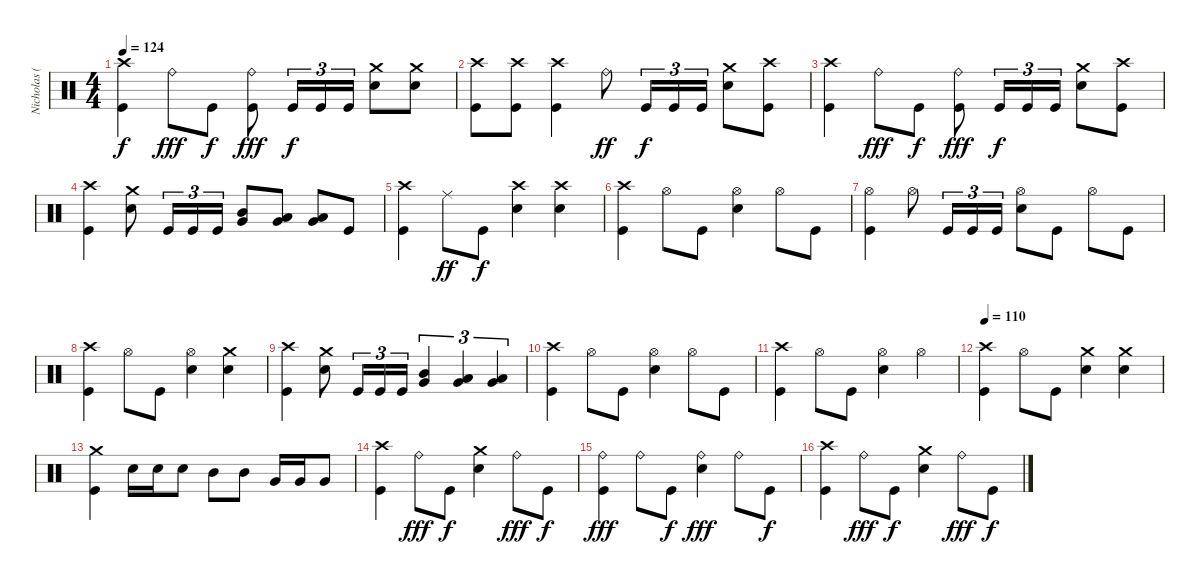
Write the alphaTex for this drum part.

\track ("Nicholas (Drums)" "Nicholas (") {instrument percussion}
\staff {score}
\articulation defaults
\ts (4 4)
\tempo 124
\clef neutral
\ks c
("Crash high (hit)" "Kick (hit)").4{dy f} "Ride (bell)".8{dy fff} "Kick (hit)".8{dy f} ("Ride (bell)" "Kick (hit)").8{dy fff} "Kick (hit)".16{tu (3 2) dy f} "Kick (hit)".16{tu (3 2)} "Kick (hit)".16{tu (3 2)} ("Crash medium (hit)" "Electric Snare (hit)").8 ("Crash medium (hit)" "Electric Snare (hit)").8 |
("Crash high (hit)" "Kick (hit)").8 ("Crash high (hit)" "Kick (hit)").8 ("Crash high (hit)" "Kick (hit)").4 "Ride (bell)".8{dy ff} "Kick (hit)".16{tu (3 2) dy f} "Kick (hit)".16{tu (3 2)} "Kick (hit)".16{tu (3 2)} ("Crash medium (hit)" "Electric Snare (hit)").8 ("Crash high (hit)" "Kick (hit)").8 |
("Crash high (hit)" "Kick (hit)").4 "Ride (bell)".8{dy fff} "Kick (hit)".8{dy f} ("Ride (bell)" "Kick (hit)").8{dy fff} "Kick (hit)".16{tu (3 2) dy f} "Kick (hit)".16{tu (3 2)} "Kick (hit)".16{tu (3 2)} ("Crash medium (hit)" "Electric Snare (hit)").8 ("Crash high (hit)" "Kick (hit)").8 |
("Crash high (hit)" "Kick (hit)").4 ("Crash medium (hit)" "Electric Snare (hit)").8 "Kick (hit)".16{tu (3 2)} "Kick (hit)".16{tu (3 2)} "Kick (hit)".16{tu (3 2)} ("Mid Tom (hit)" "Very Low Tom (hit)").8{bu 60} ("Low Tom (hit)" "Very Low Tom (hit)").8{bu 60} ("Low Tom (hit)" "Very Low Tom (hit)").8{bu 60} "Kick (hit)".8 |
("Crash high (hit)" "Kick (hit)").4 "Ride (middle)".8{dy ff} "Kick (hit)".8{dy f} ("Crash high (hit)" "Electric Snare (hit)").4 ("Crash high (hit)" "Electric Snare (hit)").4 |
("Crash high (hit)" "Kick (hit)").4 "Hi-Hat (open)".8 "Kick (hit)".8 ("Hi-Hat (open)" "Electric Snare (hit)").4 "Hi-Hat (open)".8 "Kick (hit)".8 |
("Hi-Hat (open)" "Kick (hit)").4 "Hi-Hat (open)".8 "Kick (hit)".16{tu (3 2)} "Kick (hit)".16{tu (3 2)} "Kick (hit)".16{tu (3 2)} ("Hi-Hat (open)" "Electric Snare (hit)").8 "Kick (hit)".8 "Hi-Hat (open)".8 "Kick (hit)".8 |
("Crash high (hit)" "Kick (hit)").4 "Hi-Hat (open)".8 "Kick (hit)".8 ("Hi-Hat (open)" "Electric Snare (hit)").4 ("Crash medium (hit)" "Electric Snare (hit)").4 |
("Crash high (hit)" "Kick (hit)").4 ("Crash medium (hit)" "Electric Snare (hit)").8 "Kick (hit)".16{tu (3 2)} "Kick (hit)".16{tu (3 2)} "Kick (hit)".16{tu (3 2)} ("Mid Tom (hit)" "Very Low Tom (hit)").4{tu (3 2) bu 60} ("Low Tom (hit)" "Very Low Tom (hit)").4{tu (3 2) bu 60} ("Low Tom (hit)" "Very Low Tom (hit)").4{tu (3 2) bu 60} |
("Crash high (hit)" "Kick (hit)").4 "Hi-Hat (open)".8 "Kick (hit)".8 ("Hi-Hat (open)" "Electric Snare (hit)").4 "Hi-Hat (open)".8 "Kick (hit)".8 |
("Crash high (hit)" "Kick (hit)").4 "Hi-Hat (open)".8 "Kick (hit)".8 ("Hi-Hat (open)" "Electric Snare (hit)").4 "Hi-Hat (open)".4 |
\tempo 110
("Crash high (hit)" "Kick (hit)").4 "Hi-Hat (open)".8 "Kick (hit)".8 ("Crash medium (hit)" "Electric Snare (hit)").4 ("Crash medium (hit)" "Electric Snare (hit)").4 |
("Crash medium (hit)" "Kick (hit)").4 "Electric Snare (hit)".16 "Electric Snare (hit)".16 "Electric Snare (hit)".8 "Mid Tom (hit)".8 "Mid Tom (hit)".8 "Very Low Tom (hit)".16 "Very Low Tom (hit)".16 "Very Low Tom (hit)".8 |
("Crash high (hit)" "Kick (hit)").4 "Ride (bell)".8{dy fff} "Kick (hit)".8{dy f} ("Crash medium (hit)" "Electric Snare (hit)").4 "Ride (bell)".8{dy fff} "Kick (hit)".8{dy f} |
("Ride (bell)" "Kick (hit)").4{dy fff} "Ride (bell)".8 "Kick (hit)".8{dy f} ("Ride (bell)" "Electric Snare (hit)").4{dy fff} "Ride (bell)".8 "Kick (hit)".8{dy f} |
("Crash high (hit)" "Kick (hit)").4 "Ride (bell)".8{dy fff} "Kick (hit)".8{dy f} ("Crash medium (hit)" "Electric Snare (hit)").4 "Ride (bell)".8{dy fff} "Kick (hit)".8{dy f}
